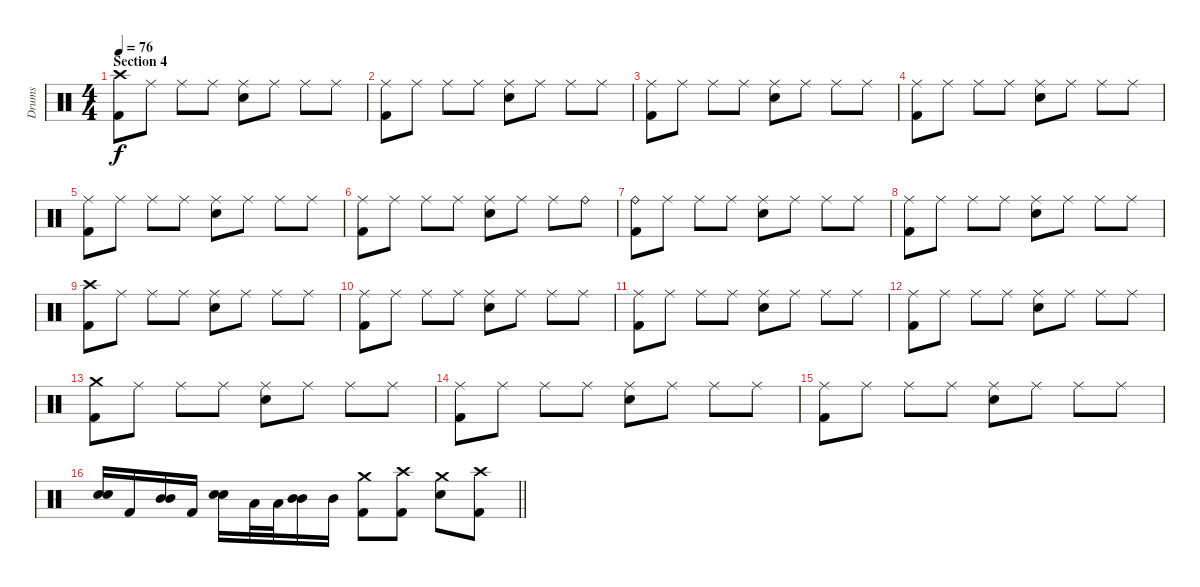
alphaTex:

\track ("Drums" "Drums") {instrument percussion}
\staff {score}
\articulation defaults
\ts (4 4)
\section ("" "Section 4")
\tempo 76
\clef neutral
\ks c
("Crash high (hit)" "Kick (hit) 2").8{dy f} "Ride (middle)".8 "Ride (middle)".8 "Ride (middle)".8 ("Ride (middle)" "Electric Snare (hit)").8 "Ride (middle)".8 "Ride (middle)".8 "Ride (middle)".8 |
("Ride (middle)" "Kick (hit) 2").8 "Ride (middle)".8 "Ride (middle)".8 "Ride (middle)".8 ("Ride (middle)" "Electric Snare (hit)").8 "Ride (middle)".8 "Ride (middle)".8 "Ride (middle)".8 |
("Ride (middle)" "Kick (hit) 2").8 "Ride (middle)".8 "Ride (middle)".8 "Ride (middle)".8 ("Ride (middle)" "Electric Snare (hit)").8 "Ride (middle)".8 "Ride (middle)".8 "Ride (middle)".8 |
("Ride (middle)" "Kick (hit) 2").8 "Ride (middle)".8 "Ride (middle)".8 "Ride (middle)".8 ("Ride (middle)" "Electric Snare (hit)").8 "Ride (middle)".8 "Ride (middle)".8 "Ride (middle)".8 |
("Ride (middle)" "Kick (hit) 2").8 "Ride (middle)".8 "Ride (middle)".8 "Ride (middle)".8 ("Ride (middle)" "Electric Snare (hit)").8 "Ride (middle)".8 "Ride (middle)".8 "Ride (middle)".8 |
("Ride (middle)" "Kick (hit) 2").8 "Ride (middle)".8 "Ride (middle)".8 "Ride (middle)".8 ("Ride (middle)" "Electric Snare (hit)").8 "Ride (middle)".8 "Ride (middle)".8 "Ride (bell)".8 |
("Ride (bell)" "Kick (hit) 2").8 "Ride (middle)".8 "Ride (middle)".8 "Ride (middle)".8 ("Ride (middle)" "Electric Snare (hit)").8 "Ride (middle)".8 "Ride (middle)".8 "Ride (middle)".8 |
("Ride (middle)" "Kick (hit) 2").8 "Ride (middle)".8 "Ride (middle)".8 "Ride (middle)".8 ("Ride (middle)" "Electric Snare (hit)").8 "Ride (middle)".8 "Ride (middle)".8 "Ride (middle)".8 |
("Crash high (hit)" "Kick (hit) 2").8 "Ride (middle)".8 "Ride (middle)".8 "Ride (middle)".8 ("Ride (middle)" "Electric Snare (hit)").8 "Ride (middle)".8 "Ride (middle)".8 "Ride (middle)".8 |
("Ride (middle)" "Kick (hit) 2").8 "Ride (middle)".8 "Ride (middle)".8 "Ride (middle)".8 ("Ride (middle)" "Electric Snare (hit)").8 "Ride (middle)".8 "Ride (middle)".8 "Ride (middle)".8 |
("Ride (middle)" "Kick (hit) 2").8 "Ride (middle)".8 "Ride (middle)".8 "Ride (middle)".8 ("Ride (middle)" "Electric Snare (hit)").8 "Ride (middle)".8 "Ride (middle)".8 "Ride (middle)".8 |
("Ride (middle)" "Kick (hit) 2").8 "Ride (middle)".8 "Ride (middle)".8 "Ride (middle)".8 ("Ride (middle)" "Electric Snare (hit)").8 "Ride (middle)".8 "Ride (middle)".8 "Ride (middle)".8 |
("Crash medium (hit)" "Kick (hit) 2").8 "Ride (middle)".8 "Ride (middle)".8 "Ride (middle)".8 ("Ride (middle)" "Electric Snare (hit)").8 "Ride (middle)".8 "Ride (middle)".8 "Ride (middle)".8 |
("Ride (middle)" "Kick (hit) 2").8 "Ride (middle)".8 "Ride (middle)".8 "Ride (middle)".8 ("Ride (middle)" "Electric Snare (hit)").8 "Ride (middle)".8 "Ride (middle)".8 "Ride (middle)".8 |
("Ride (middle)" "Kick (hit) 2").8 "Ride (middle)".8 "Ride (middle)".8 "Ride (middle)".8 ("Ride (middle)" "Electric Snare (hit)").8 "Ride (middle)".8 "Ride (middle)".8 "Ride (middle)".8 |
\barLineRight lightlight
("Electric Snare (hit)" "Electric Snare (hit)").16{bu 60} "Kick (hit) 2".16 ("Mid Tom (hit)" "Mid Tom (hit)").16{bu 60} "Kick (hit) 2".16 ("Electric Snare (hit)" "Electric Snare (hit)").16{bu 60} "Low Tom (hit)".32 "Low Tom (hit)".32 ("Mid Tom (hit)" "Mid Tom (hit)").16{bu 60} "Mid Tom (hit)".16 ("Crash medium (hit)" "Kick (hit) 2").8 ("Crash high (hit)" "Kick (hit) 2").8 ("Crash medium (hit)" "Electric Snare (hit)").8 ("Crash high (hit)" "Kick (hit) 2").8
